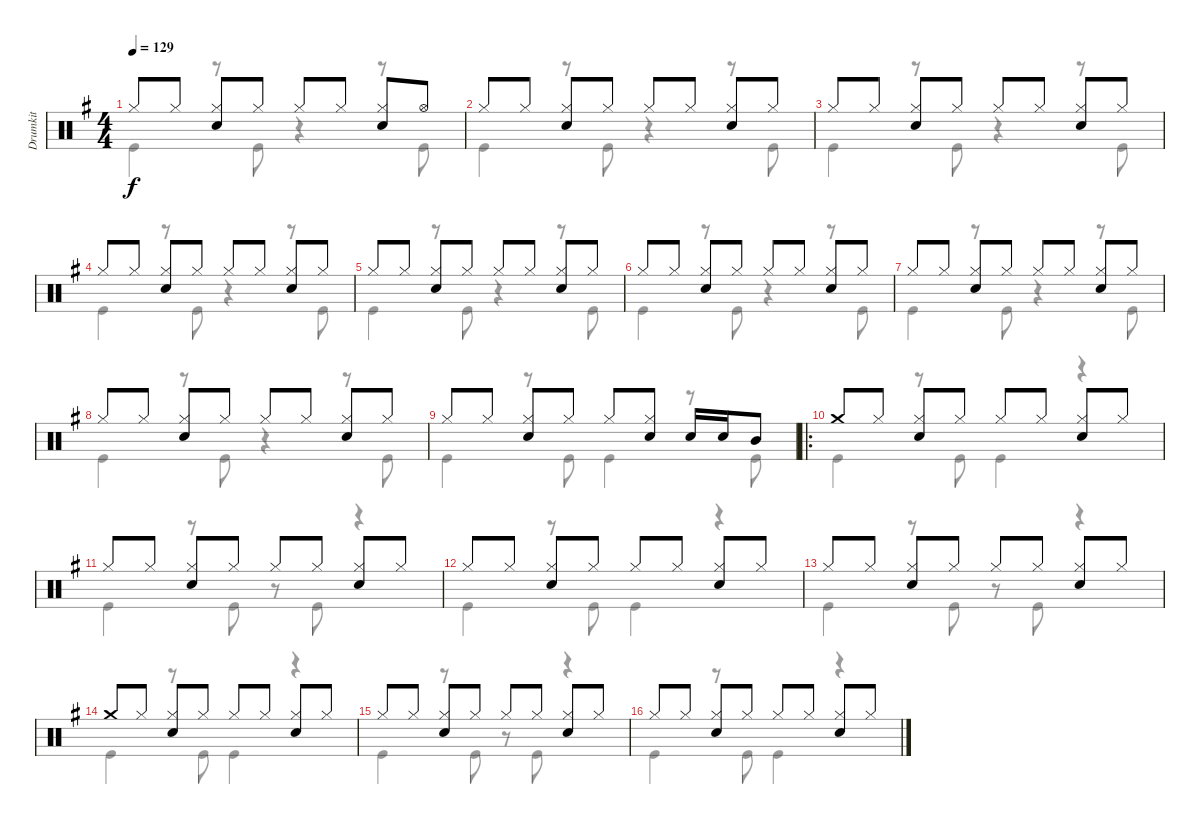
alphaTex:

\track ("Drumkit" "Drumkit") {instrument percussion}
\staff {score}
\articulation defaults
\voice
\ts (4 4)
\tempo 129
\clef neutral
\ks g "Hi-Hat (closed)".8{dy f} "Hi-Hat (closed)".8
("Hi-Hat (closed)" "Snare (hit) 2").8 "Hi-Hat (closed)".8 "Hi-Hat (closed)".8 "Hi-Hat (closed)".8 ("Hi-Hat (closed)" "Snare (hit) 2").8 "Hi-Hat (open)".8 |
"Hi-Hat (closed)".8 "Hi-Hat (closed)".8 ("Hi-Hat (closed)" "Snare (hit) 2").8 "Hi-Hat (closed)".8 "Hi-Hat (closed)".8 "Hi-Hat (closed)".8 ("Hi-Hat (closed)" "Snare (hit) 2").8 "Hi-Hat (closed)".8 |
"Hi-Hat (closed)".8 "Hi-Hat (closed)".8 ("Hi-Hat (closed)" "Snare (hit) 2").8 "Hi-Hat (closed)".8 "Hi-Hat (closed)".8 "Hi-Hat (closed)".8 ("Hi-Hat (closed)" "Snare (hit) 2").8 "Hi-Hat (closed)".8 |
"Hi-Hat (closed)".8 "Hi-Hat (closed)".8 ("Hi-Hat (closed)" "Snare (hit) 2").8 "Hi-Hat (closed)".8 "Hi-Hat (closed)".8 "Hi-Hat (closed)".8 ("Hi-Hat (closed)" "Snare (hit) 2").8 "Hi-Hat (closed)".8 |
"Hi-Hat (closed)".8 "Hi-Hat (closed)".8 ("Hi-Hat (closed)" "Snare (hit) 2").8 "Hi-Hat (closed)".8 "Hi-Hat (closed)".8 "Hi-Hat (closed)".8 ("Hi-Hat (closed)" "Snare (hit) 2").8 "Hi-Hat (closed)".8 |
"Hi-Hat (closed)".8 "Hi-Hat (closed)".8 ("Hi-Hat (closed)" "Snare (hit) 2").8 "Hi-Hat (closed)".8 "Hi-Hat (closed)".8 "Hi-Hat (closed)".8 ("Hi-Hat (closed)" "Snare (hit) 2").8 "Hi-Hat (closed)".8 |
"Hi-Hat (closed)".8 "Hi-Hat (closed)".8 ("Hi-Hat (closed)" "Snare (hit) 2").8 "Hi-Hat (closed)".8 "Hi-Hat (closed)".8 "Hi-Hat (closed)".8 ("Hi-Hat (closed)" "Snare (hit) 2").8 "Hi-Hat (closed)".8 |
"Hi-Hat (closed)".8 "Hi-Hat (closed)".8 ("Hi-Hat (closed)" "Snare (hit) 2").8 "Hi-Hat (closed)".8 "Hi-Hat (closed)".8 "Hi-Hat (closed)".8 ("Hi-Hat (closed)" "Snare (hit) 2").8 "Hi-Hat (closed)".8 |
"Hi-Hat (closed)".8 "Hi-Hat (closed)".8 ("Hi-Hat (closed)" "Snare (hit) 2").8 "Hi-Hat (closed)".8 "Hi-Hat (closed)".8 ("Hi-Hat (closed)" "Snare (hit) 2").8 "Snare (hit) 2".16 "Snare (hit) 2".16 "Mid Tom (hit)".8 |
\ro "Crash medium (hit)".8 "Hi-Hat (closed)".8
("Hi-Hat (closed)" "Snare (hit) 2").8 "Hi-Hat (closed)".8 "Hi-Hat (closed)".8 "Hi-Hat (closed)".8 ("Hi-Hat (closed)" "Snare (hit) 2").8 "Hi-Hat (closed)".8 |
"Hi-Hat (closed)".8 "Hi-Hat (closed)".8 ("Hi-Hat (closed)" "Snare (hit) 2").8 "Hi-Hat (closed)".8 "Hi-Hat (closed)".8 "Hi-Hat (closed)".8 ("Hi-Hat (closed)" "Snare (hit) 2").8 "Hi-Hat (closed)".8 |
"Hi-Hat (closed)".8 "Hi-Hat (closed)".8 ("Hi-Hat (closed)" "Snare (hit) 2").8 "Hi-Hat (closed)".8 "Hi-Hat (closed)".8 "Hi-Hat (closed)".8 ("Hi-Hat (closed)" "Snare (hit) 2").8 "Hi-Hat (closed)".8 |
"Hi-Hat (closed)".8 "Hi-Hat (closed)".8 ("Hi-Hat (closed)" "Snare (hit) 2").8 "Hi-Hat (closed)".8 "Hi-Hat (closed)".8 "Hi-Hat (closed)".8 ("Hi-Hat (closed)" "Snare (hit) 2").8 "Hi-Hat (closed)".8 |
"Crash medium (hit)".8 "Hi-Hat (closed)".8 ("Hi-Hat (closed)" "Snare (hit) 2").8 "Hi-Hat (closed)".8 "Hi-Hat (closed)".8 "Hi-Hat (closed)".8 ("Hi-Hat (closed)" "Snare (hit) 2").8 "Hi-Hat (closed)".8 |
"Hi-Hat (closed)".8 "Hi-Hat (closed)".8 ("Hi-Hat (closed)" "Snare (hit) 2").8 "Hi-Hat (closed)".8 "Hi-Hat (closed)".8 "Hi-Hat (closed)".8 ("Hi-Hat (closed)" "Snare (hit) 2").8 "Hi-Hat (closed)".8 |
"Hi-Hat (closed)".8 "Hi-Hat (closed)".8 ("Hi-Hat (closed)" "Snare (hit) 2").8 "Hi-Hat (closed)".8 "Hi-Hat (closed)".8 "Hi-Hat (closed)".8 ("Hi-Hat (closed)" "Snare (hit) 2").8 "Hi-Hat (closed)".8
\voice
\clef neutral
\ottava regular
\simile none
\ks g "Kick (hit)".4{dy f}
r.8 "Kick (hit)".8 r.4 r.8 "Kick (hit)".8 |
"Kick (hit)".4 r.8 "Kick (hit)".8 r.4 r.8 "Kick (hit)".8 |
"Kick (hit)".4 r.8 "Kick (hit)".8 r.4 r.8 "Kick (hit)".8 |
"Kick (hit)".4 r.8 "Kick (hit)".8 r.4 r.8 "Kick (hit)".8 |
"Kick (hit)".4 r.8 "Kick (hit)".8 r.4 r.8 "Kick (hit)".8 |
"Kick (hit)".4 r.8 "Kick (hit)".8 r.4 r.8 "Kick (hit)".8 |
"Kick (hit)".4 r.8 "Kick (hit)".8 r.4 r.8 "Kick (hit)".8 |
"Kick (hit)".4 r.8 "Kick (hit)".8 r.4 r.8 "Kick (hit)".8 |
"Kick (hit)".4 r.8 "Kick (hit)".8 "Kick (hit)".4 r.8 "Kick (hit)".8 |
"Kick (hit)".4 r.8 "Kick (hit)".8 "Kick (hit)".4 r.4 |
"Kick (hit)".4 r.8 "Kick (hit)".8 r.8 "Kick (hit)".8 r.4 |
"Kick (hit)".4 r.8 "Kick (hit)".8 "Kick (hit)".4 r.4 |
"Kick (hit)".4 r.8 "Kick (hit)".8 r.8 "Kick (hit)".8 r.4 |
"Kick (hit)".4 r.8 "Kick (hit)".8 "Kick (hit)".4 r.4 |
"Kick (hit)".4 r.8 "Kick (hit)".8 r.8 "Kick (hit)".8 r.4 |
"Kick (hit)".4 r.8 "Kick (hit)".8 "Kick (hit)".4 r.4
